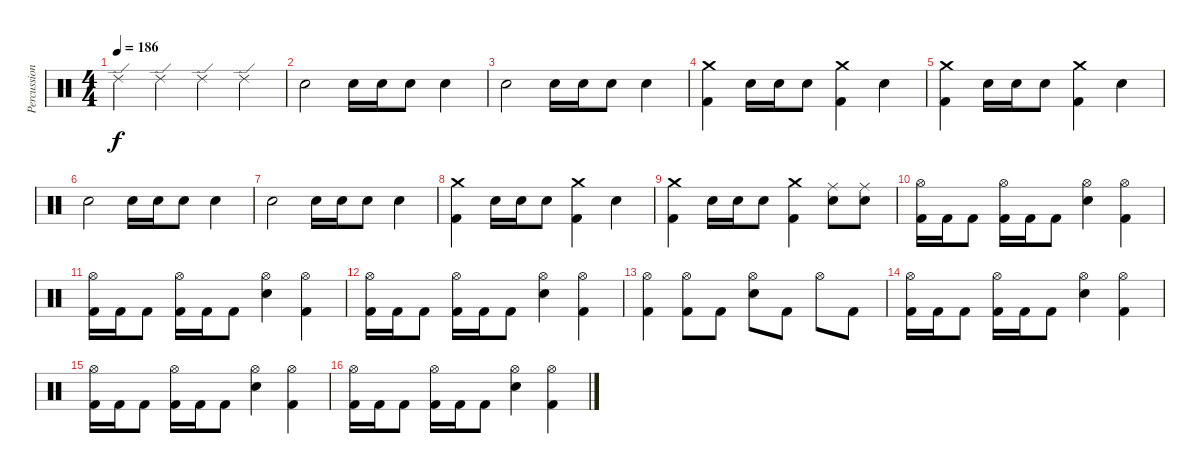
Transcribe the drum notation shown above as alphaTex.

\track ("Percussion" "Percussion") {instrument percussion}
\staff {score}
\articulation defaults
\ts (4 4)
\tempo 186
\clef neutral
\ks c "Ride (edge) 2".4{dy f} "Ride (edge) 2".4 "Ride (edge) 2".4 "Ride (edge) 2".4
|
"Snare (hit) 2".2 "Snare (hit) 2".16 "Snare (hit) 2".16 "Snare (hit) 2".8 "Snare (hit) 2".4 |
"Snare (hit) 2".2 "Snare (hit) 2".16 "Snare (hit) 2".16 "Snare (hit) 2".8 "Snare (hit) 2".4 |
("Crash medium (hit)" "Kick (hit) 2").4 "Snare (hit) 2".16 "Snare (hit) 2".16 "Snare (hit) 2".8 ("Crash medium (hit)" "Kick (hit) 2").4 "Snare (hit) 2".4 |
("Crash medium (hit)" "Kick (hit) 2").4 "Snare (hit) 2".16 "Snare (hit) 2".16 "Snare (hit) 2".8 ("Crash medium (hit)" "Kick (hit) 2").4 "Snare (hit) 2".4 |
"Snare (hit) 2".2 "Snare (hit) 2".16 "Snare (hit) 2".16 "Snare (hit) 2".8 "Snare (hit) 2".4 |
"Snare (hit) 2".2 "Snare (hit) 2".16 "Snare (hit) 2".16 "Snare (hit) 2".8 "Snare (hit) 2".4 |
("Crash medium (hit)" "Kick (hit) 2").4 "Snare (hit) 2".16 "Snare (hit) 2".16 "Snare (hit) 2".8 ("Crash medium (hit)" "Kick (hit) 2").4 "Snare (hit) 2".4 |
("Crash medium (hit)" "Kick (hit) 2").4 "Snare (hit) 2".16 "Snare (hit) 2".16 "Snare (hit) 2".8 ("Crash medium (hit)" "Kick (hit) 2").4 ("Ride (middle)" "Snare (hit) 2").8 ("Ride (middle)" "Snare (hit) 2").8 |
("Hi-Hat (open)" "Kick (hit) 2").16 "Kick (hit) 2".16 "Kick (hit) 2".8 ("Hi-Hat (open)" "Kick (hit) 2").16 "Kick (hit) 2".16 "Kick (hit) 2".8 ("Hi-Hat (open)" "Snare (hit) 2").4 ("Hi-Hat (open)" "Kick (hit) 2").4 |
("Hi-Hat (open)" "Kick (hit) 2").16 "Kick (hit) 2".16 "Kick (hit) 2".8 ("Hi-Hat (open)" "Kick (hit) 2").16 "Kick (hit) 2".16 "Kick (hit) 2".8 ("Hi-Hat (open)" "Snare (hit) 2").4 ("Hi-Hat (open)" "Kick (hit) 2").4 |
("Hi-Hat (open)" "Kick (hit) 2").16 "Kick (hit) 2".16 "Kick (hit) 2".8 ("Hi-Hat (open)" "Kick (hit) 2").16 "Kick (hit) 2".16 "Kick (hit) 2".8 ("Hi-Hat (open)" "Snare (hit) 2").4 ("Hi-Hat (open)" "Kick (hit) 2").4 |
("Hi-Hat (open)" "Kick (hit) 2").4 ("Hi-Hat (open)" "Kick (hit) 2").8 "Kick (hit) 2".8 ("Hi-Hat (open)" "Snare (hit) 2").8 "Kick (hit) 2".8 "Hi-Hat (open)".8 "Kick (hit) 2".8 |
("Hi-Hat (open)" "Kick (hit) 2").16 "Kick (hit) 2".16 "Kick (hit) 2".8 ("Hi-Hat (open)" "Kick (hit) 2").16 "Kick (hit) 2".16 "Kick (hit) 2".8 ("Hi-Hat (open)" "Snare (hit) 2").4 ("Hi-Hat (open)" "Kick (hit) 2").4 |
("Hi-Hat (open)" "Kick (hit) 2").16 "Kick (hit) 2".16 "Kick (hit) 2".8 ("Hi-Hat (open)" "Kick (hit) 2").16 "Kick (hit) 2".16 "Kick (hit) 2".8 ("Hi-Hat (open)" "Snare (hit) 2").4 ("Hi-Hat (open)" "Kick (hit) 2").4 |
("Hi-Hat (open)" "Kick (hit) 2").16 "Kick (hit) 2".16 "Kick (hit) 2".8 ("Hi-Hat (open)" "Kick (hit) 2").16 "Kick (hit) 2".16 "Kick (hit) 2".8 ("Hi-Hat (open)" "Snare (hit) 2").4 ("Hi-Hat (open)" "Kick (hit) 2").4
